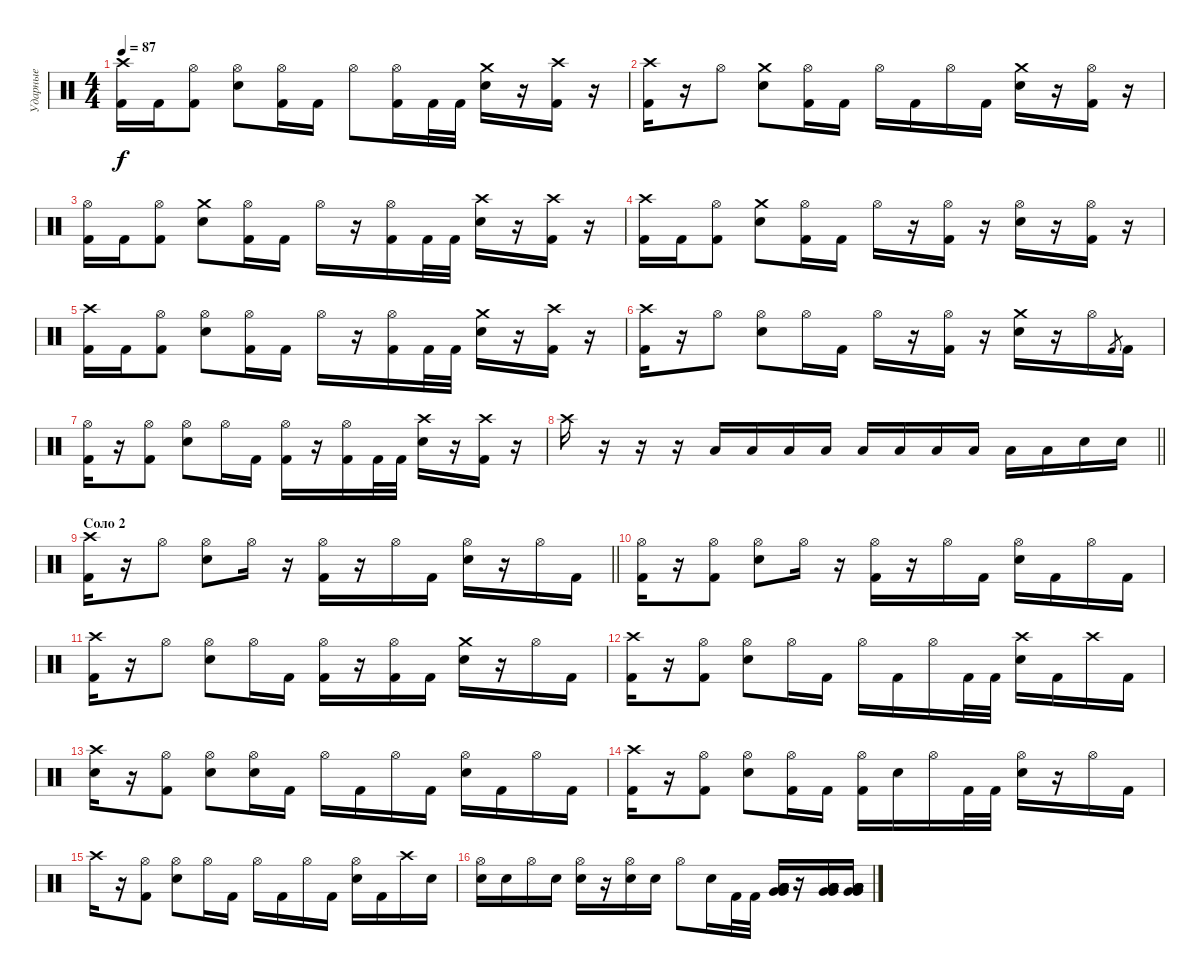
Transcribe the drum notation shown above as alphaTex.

\track ("Ударные" "Ударные") {instrument percussion}
\staff {score}
\articulation defaults
\ts (4 4)
\tempo 87
\clef neutral
\ks c
("Crash high (hit)" "Kick (hit) 2").16{dy f} "Kick (hit) 2".16 ("Hi-Hat (open)" "Kick (hit) 2").8 ("Hi-Hat (open)" "Snare (hit) 2").8 ("Hi-Hat (open)" "Kick (hit) 2").16 "Kick (hit) 2".16 "Hi-Hat (open)".8 ("Hi-Hat (open)" "Kick (hit) 2").16 "Kick (hit) 2".32 "Kick (hit) 2".32 ("Crash medium (hit)" "Snare (hit) 2").16 r.16 ("Crash high (hit)" "Kick (hit) 2").16 r.16 |
("Crash high (hit)" "Kick (hit) 2").16 r.16 "Hi-Hat (open)".8 ("Crash medium (hit)" "Snare (hit) 2").8 ("Hi-Hat (open)" "Kick (hit) 2").16 "Kick (hit) 2".16 "Hi-Hat (open)".16 "Kick (hit) 2".16 "Hi-Hat (open)".16 "Kick (hit) 2".16 ("Crash medium (hit)" "Snare (hit) 2").16 r.16 ("Hi-Hat (open)" "Kick (hit) 2").16 r.16 |
("Hi-Hat (open)" "Kick (hit) 2").16 "Kick (hit) 2".16 ("Hi-Hat (open)" "Kick (hit) 2").8 ("Crash medium (hit)" "Snare (hit) 2").8 ("Hi-Hat (open)" "Kick (hit) 2").16 "Kick (hit) 2".16 "Hi-Hat (open)".16 r.16 ("Hi-Hat (open)" "Kick (hit) 2").16 "Kick (hit) 2".32 "Kick (hit) 2".32 ("Crash high (hit)" "Snare (hit) 2").16 r.16 ("Crash high (hit)" "Kick (hit) 2").16 r.16 |
("Crash high (hit)" "Kick (hit) 2").16 "Kick (hit) 2".16 ("Hi-Hat (open)" "Kick (hit) 2").8 ("Crash medium (hit)" "Snare (hit) 2").8 ("Hi-Hat (open)" "Kick (hit) 2").16 "Kick (hit) 2".16 "Hi-Hat (open)".16 r.16 ("Hi-Hat (open)" "Kick (hit) 2").16 r.16 ("Hi-Hat (open)" "Snare (hit) 2").16 r.16 ("Hi-Hat (open)" "Kick (hit) 2").16 r.16 |
("Crash high (hit)" "Kick (hit) 2").16 "Kick (hit) 2".16 ("Hi-Hat (open)" "Kick (hit) 2").8 ("Hi-Hat (open)" "Snare (hit) 2").8 ("Hi-Hat (open)" "Kick (hit) 2").16 "Kick (hit) 2".16 "Hi-Hat (open)".16 r.16 ("Hi-Hat (open)" "Kick (hit) 2").16 "Kick (hit) 2".32 "Kick (hit) 2".32 ("Crash medium (hit)" "Snare (hit) 2").16 r.16 ("Crash high (hit)" "Kick (hit) 2").16 r.16 |
("Crash high (hit)" "Kick (hit) 2").16 r.16 "Hi-Hat (open)".8 ("Hi-Hat (open)" "Snare (hit) 2").8 "Hi-Hat (open)".16 "Kick (hit) 2".16 "Hi-Hat (open)".16 r.16 ("Hi-Hat (open)" "Kick (hit) 2").16 r.16 ("Crash medium (hit)" "Snare (hit) 2").16 r.16 "Hi-Hat (open)".16 "Kick (hit) 2".8{gr} "Kick (hit) 2".16 |
("Hi-Hat (open)" "Kick (hit) 2").16 r.16 ("Hi-Hat (open)" "Kick (hit) 2").8 ("Hi-Hat (open)" "Snare (hit) 2").8 "Hi-Hat (open)".16 "Kick (hit) 2".16 ("Hi-Hat (open)" "Kick (hit) 2").16 r.16 ("Hi-Hat (open)" "Kick (hit) 2").16 "Kick (hit) 2".32 "Kick (hit) 2".32 ("Crash high (hit)" "Snare (hit) 2").16 r.16 ("Crash high (hit)" "Kick (hit) 2").16 r.16 |
\barLineRight lightlight "Crash high (hit)".16
r.16 r.16 r.16{volume 7} "Low Tom (hit)".16{volume 16} "Low Tom (hit)".16 "Low Tom (hit)".16 "Low Tom (hit)".16 "Low Tom (hit)".16 "Low Tom (hit)".16 "Low Tom (hit)".16 "Low Tom (hit)".16 "Low Tom (hit)".16 "Low Tom (hit)".16 "Snare (hit) 2".16 "Snare (hit) 2".16 |
\section ("" "Соло 2")
\barLineRight lightlight
("Crash high (hit)" "Kick (hit) 2").16 r.16 "Hi-Hat (open)".8 ("Hi-Hat (open)" "Snare (hit) 2").8 "Hi-Hat (open)".16 r.16 ("Hi-Hat (open)" "Kick (hit) 2").16 r.16 "Hi-Hat (open)".16 "Kick (hit) 2".16 ("Hi-Hat (open)" "Snare (hit) 2").16 r.16 "Hi-Hat (open)".16 "Kick (hit) 2".16 |
("Hi-Hat (open)" "Kick (hit) 2").16 r.16 ("Hi-Hat (open)" "Kick (hit) 2").8 ("Hi-Hat (open)" "Snare (hit) 2").8 "Hi-Hat (open)".16 r.16 ("Hi-Hat (open)" "Kick (hit) 2").16 r.16 "Hi-Hat (open)".16 "Kick (hit) 2".16 ("Hi-Hat (open)" "Snare (hit) 2").16 "Kick (hit) 2".16 "Hi-Hat (open)".16 "Kick (hit) 2".16 |
("Crash high (hit)" "Kick (hit) 2").16 r.16 "Hi-Hat (open)".8 ("Hi-Hat (open)" "Snare (hit) 2").8 "Hi-Hat (open)".16 "Kick (hit) 2".16 ("Hi-Hat (open)" "Kick (hit) 2").16 r.16 ("Hi-Hat (open)" "Kick (hit) 2").16 "Kick (hit) 2".16 ("Crash medium (hit)" "Snare (hit) 2").16 r.16 "Hi-Hat (open)".16 "Kick (hit) 2".16 |
("Crash high (hit)" "Kick (hit) 2").16 r.16 ("Hi-Hat (open)" "Kick (hit) 2").8 ("Hi-Hat (open)" "Snare (hit) 2").8 "Hi-Hat (open)".16 "Kick (hit) 2".16 "Hi-Hat (open)".16 "Kick (hit) 2".16 "Hi-Hat (open)".16 "Kick (hit) 2".32 "Kick (hit) 2".32 ("Crash high (hit)" "Snare (hit) 2").16 "Kick (hit) 2".16 "Crash high (hit)".16 "Kick (hit) 2".16 |
("Crash high (hit)" "Snare (hit) 2").16 r.16 ("Hi-Hat (open)" "Kick (hit) 2").8 ("Hi-Hat (open)" "Snare (hit) 2").8 ("Hi-Hat (open)" "Snare (hit) 2").16 "Kick (hit) 2".16 "Hi-Hat (open)".16 "Kick (hit) 2".16 "Hi-Hat (open)".16 "Kick (hit) 2".16 ("Hi-Hat (open)" "Snare (hit) 2").16 "Kick (hit) 2".16 "Hi-Hat (open)".16 "Kick (hit) 2".16 |
("Crash high (hit)" "Kick (hit) 2").16 r.16 ("Hi-Hat (open)" "Kick (hit) 2").8 ("Hi-Hat (open)" "Snare (hit) 2").8 ("Hi-Hat (open)" "Kick (hit) 2").16 "Kick (hit) 2".16 ("Hi-Hat (open)" "Kick (hit) 2").16 "Snare (hit) 2".16 "Hi-Hat (open)".16 "Kick (hit) 2".32 "Kick (hit) 2".32 ("Hi-Hat (open)" "Snare (hit) 2").16 r.16 "Hi-Hat (open)".16 "Kick (hit) 2".16 |
"Crash high (hit)".16 r.16 ("Hi-Hat (open)" "Kick (hit) 2").8 ("Hi-Hat (open)" "Snare (hit) 2").8 "Hi-Hat (open)".16 "Kick (hit) 2".16 "Hi-Hat (open)".16 "Kick (hit) 2".16 "Hi-Hat (open)".16 "Kick (hit) 2".16 ("Hi-Hat (open)" "Snare (hit) 2").16 "Kick (hit) 2".16 "Crash high (hit)".16 "Snare (hit) 2".16 |
("Hi-Hat (open)" "Snare (hit) 2").16 "Snare (hit) 2".16 "Hi-Hat (open)".16 "Snare (hit) 2".16 ("Hi-Hat (open)" "Snare (hit) 2").16 r.16 ("Hi-Hat (open)" "Snare (hit) 2").16 "Snare (hit) 2".16 "Hi-Hat (open)".8 "Snare (hit) 2".16 "Kick (hit) 2".32 "Kick (hit) 2".32 ("Low Tom (hit)" "Low Tom (hit)" "Very Low Tom (hit)" "Very Low Tom (hit)" "Low Floor Tom (hit)" "Low Floor Tom (hit)").16 r.16 ("Low Tom (hit)" "Low Tom (hit)" "Very Low Tom (hit)" "Very Low Tom (hit)" "Low Floor Tom (hit)" "Low Floor Tom (hit)").16 ("Low Tom (hit)" "Low Tom (hit)" "Very Low Tom (hit)" "Very Low Tom (hit)" "Low Floor Tom (hit)" "Low Floor Tom (hit)").16
